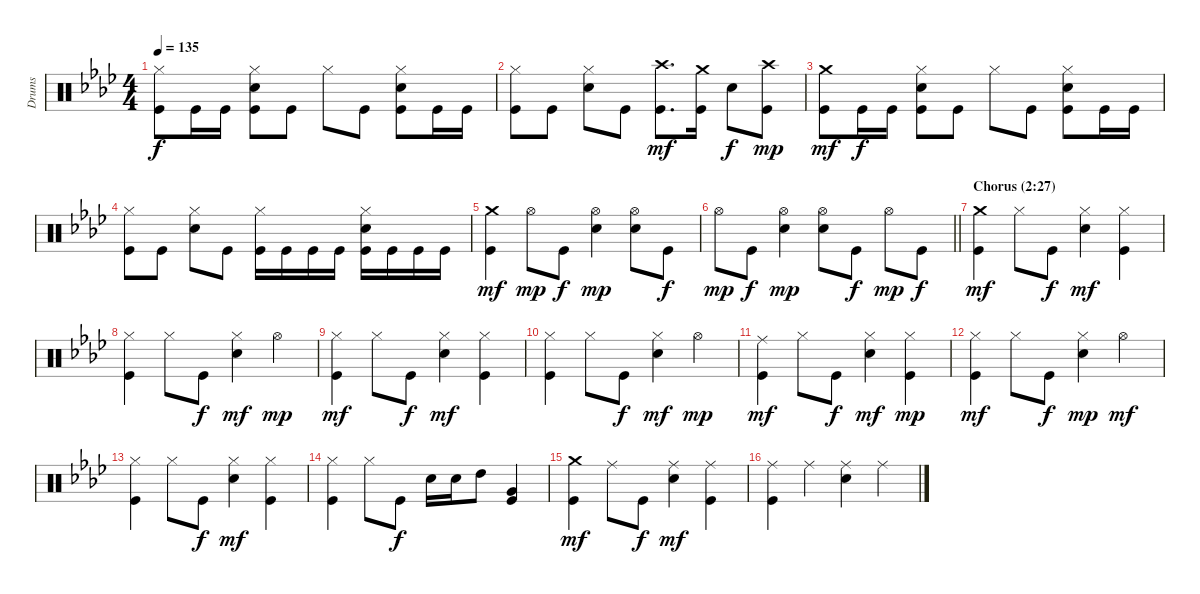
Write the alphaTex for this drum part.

\track ("Drums" "Drums") {instrument percussion}
\staff {score}
\articulation defaults
\ts (4 4)
\tempo 135
\clef neutral
\ks fminor
("Hi-Hat (closed)" "Kick (hit)").8{dy f} "Kick (hit)".16 "Kick (hit)".16 ("Hi-Hat (closed)" "Snare (hit) 2" "Kick (hit)").8 "Kick (hit)".8 "Hi-Hat (closed)".8 "Kick (hit)".8 ("Hi-Hat (closed)" "Snare (hit) 2" "Kick (hit)").8 "Kick (hit)".16 "Kick (hit)".16 |
("Hi-Hat (closed)" "Kick (hit)").8 "Kick (hit)".8 ("Hi-Hat (closed)" "Snare (hit) 2").8 "Kick (hit)".8 ("Crash high (hit)" "Kick (hit)").8{d dy mf} ("Crash medium (hit)" "Kick (hit)").16 "Snare (hit) 2".8{dy f} ("Crash high (hit)" "Kick (hit)").8{dy mp} |
("Crash medium (hit)" "Kick (hit)").8{dy mf} "Kick (hit)".16{dy f} "Kick (hit)".16 ("Hi-Hat (closed)" "Snare (hit) 2" "Kick (hit)").8 "Kick (hit)".8 "Hi-Hat (closed)".8 "Kick (hit)".8 ("Hi-Hat (closed)" "Snare (hit) 2" "Kick (hit)").8 "Kick (hit)".16 "Kick (hit)".16 |
("Hi-Hat (closed)" "Kick (hit)").8 "Kick (hit)".8 ("Hi-Hat (closed)" "Snare (hit) 2").8 "Kick (hit)".8 ("Hi-Hat (closed)" "Kick (hit)").16 "Kick (hit)".16 "Kick (hit)".16 "Kick (hit)".16 ("Hi-Hat (closed)" "Snare (hit) 2" "Kick (hit)").16 "Kick (hit)".16 "Kick (hit)".16 "Kick (hit)".16 |
("Crash medium (hit)" "Kick (hit)").4{dy mf} "Hi-Hat (open)".8{dy mp} "Kick (hit)".8{dy f} ("Hi-Hat (open)" "Snare (hit) 2").4{dy mp} ("Hi-Hat (open)" "Snare (hit) 2").8 "Kick (hit)".8{dy f} |
\barLineRight lightlight "Hi-Hat (open)".8{dy mp} "Kick (hit)".8{dy f}
("Hi-Hat (open)" "Snare (hit) 2").4{dy mp} ("Hi-Hat (open)" "Snare (hit) 2").8 "Kick (hit)".8{dy f} "Hi-Hat (open)".8{dy mp} "Kick (hit)".8{dy f} |
\section ("" "Chorus (2:27)")
("Crash medium (hit)" "Kick (hit)").4{dy mf} "Hi-Hat (closed)".8 "Kick (hit)".8{dy f} ("Hi-Hat (closed)" "Snare (hit) 2").4{dy mf} ("Hi-Hat (closed)" "Kick (hit)").4 |
("Hi-Hat (closed)" "Kick (hit)").4 "Hi-Hat (closed)".8 "Kick (hit)".8{dy f} ("Hi-Hat (closed)" "Snare (hit) 2").4{dy mf} "Hi-Hat (open)".4{dy mp} |
("Hi-Hat (closed)" "Kick (hit)").4{dy mf} "Hi-Hat (closed)".8 "Kick (hit)".8{dy f} ("Hi-Hat (closed)" "Snare (hit) 2").4{dy mf} ("Hi-Hat (closed)" "Kick (hit)").4 |
("Hi-Hat (closed)" "Kick (hit)").4 "Hi-Hat (closed)".8 "Kick (hit)".8{dy f} ("Hi-Hat (closed)" "Snare (hit) 2").4{dy mf} "Hi-Hat (open)".4{dy mp} |
("Ride (middle)" "Kick (hit)").4{dy mf} "Hi-Hat (closed)".8 "Kick (hit)".8{dy f} ("Hi-Hat (closed)" "Snare (hit) 2").4{dy mf} ("Hi-Hat (closed)" "Kick (hit)").4{dy mp} |
("Hi-Hat (closed)" "Kick (hit)").4{dy mf} "Hi-Hat (closed)".8 "Kick (hit)".8{dy f} ("Hi-Hat (closed)" "Snare (hit) 2").4{dy mp} "Hi-Hat (open)".4{dy mf} |
("Hi-Hat (closed)" "Kick (hit)").4 "Hi-Hat (closed)".8 "Kick (hit)".8{dy f} ("Hi-Hat (closed)" "Snare (hit) 2").4{dy mf} ("Hi-Hat (closed)" "Kick (hit)").4 |
("Hi-Hat (closed)" "Kick (hit)").4 "Hi-Hat (closed)".8 "Kick (hit)".8{dy f} "Snare (hit) 2".16 "Snare (hit) 2".16 "High Tom (hit)".8 ("Very Low Tom (hit)" "Kick (hit)").4 |
("Crash medium (hit)" "Kick (hit)").4{dy mf} "Ride (middle)".8 "Kick (hit)".8{dy f} ("Ride (middle)" "Snare (hit) 2").4{dy mf} ("Ride (middle)" "Kick (hit)").4 |
("Ride (middle)" "Kick (hit)").4 "Ride (middle)".4 ("Ride (middle)" "Snare (hit) 2").4 "Ride (middle)".4
